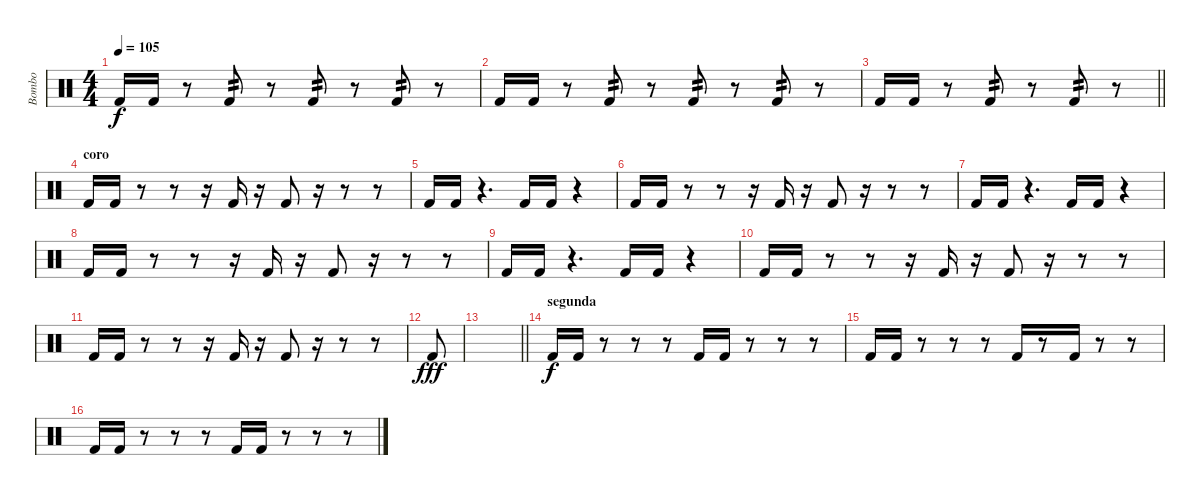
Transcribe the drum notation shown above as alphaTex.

\track ("Bombo" "Bombo") {instrument percussion}
\staff {score}
\articulation defaults
\ts (4 4)
\tempo 105
\clef neutral
\ks c "Kick (hit) 2".16{dy f} "Kick (hit) 2".16
r.8 "Kick (hit) 2".8{tp 2} r.8 "Kick (hit) 2".8{tp 2} r.8 "Kick (hit) 2".8{tp 2} r.8 |
"Kick (hit) 2".16 "Kick (hit) 2".16 r.8 "Kick (hit) 2".8{tp 2} r.8 "Kick (hit) 2".8{tp 2} r.8 "Kick (hit) 2".8{tp 2} r.8 |
\barLineRight lightlight "Kick (hit) 2".16 "Kick (hit) 2".16
r.8 "Kick (hit) 2".8{tp 2} r.8 "Kick (hit) 2".8{tp 2} r.8 |
\section ("" "coro")
"Kick (hit) 2".16 "Kick (hit) 2".16 r.8 r.8 r.16 "Kick (hit) 2".16 r.16 "Kick (hit) 2".8 r.16 r.8 r.8 |
"Kick (hit) 2".16 "Kick (hit) 2".16 r.4{d} "Kick (hit) 2".16 "Kick (hit) 2".16 r.4 |
"Kick (hit) 2".16 "Kick (hit) 2".16 r.8 r.8 r.16 "Kick (hit) 2".16 r.16 "Kick (hit) 2".8 r.16 r.8 r.8 |
"Kick (hit) 2".16 "Kick (hit) 2".16 r.4{d} "Kick (hit) 2".16 "Kick (hit) 2".16 r.4 |
"Kick (hit) 2".16 "Kick (hit) 2".16 r.8 r.8 r.16 "Kick (hit) 2".16 r.16 "Kick (hit) 2".8 r.16 r.8 r.8 |
"Kick (hit) 2".16 "Kick (hit) 2".16 r.4{d} "Kick (hit) 2".16 "Kick (hit) 2".16 r.4 |
"Kick (hit) 2".16 "Kick (hit) 2".16 r.8 r.8 r.16 "Kick (hit) 2".16 r.16 "Kick (hit) 2".8 r.16 r.8 r.8 |
"Kick (hit) 2".16 "Kick (hit) 2".16 r.8 r.8 r.16 "Kick (hit) 2".16 r.16 "Kick (hit) 2".8 r.16 r.8 r.8 |
"Kick (hit) 2".8{dy fff} |
\barLineRight lightlight
|
\section ("" "segunda")
"Kick (hit) 2".16{dy f} "Kick (hit) 2".16 r.8 r.8 r.8 "Kick (hit) 2".16 "Kick (hit) 2".16 r.8 r.8 r.8 |
"Kick (hit) 2".16 "Kick (hit) 2".16 r.8 r.8 r.8 "Kick (hit) 2".16 r.8 "Kick (hit) 2".16 r.8 r.8 |
"Kick (hit) 2".16 "Kick (hit) 2".16 r.8 r.8 r.8 "Kick (hit) 2".16 "Kick (hit) 2".16 r.8 r.8 r.8
